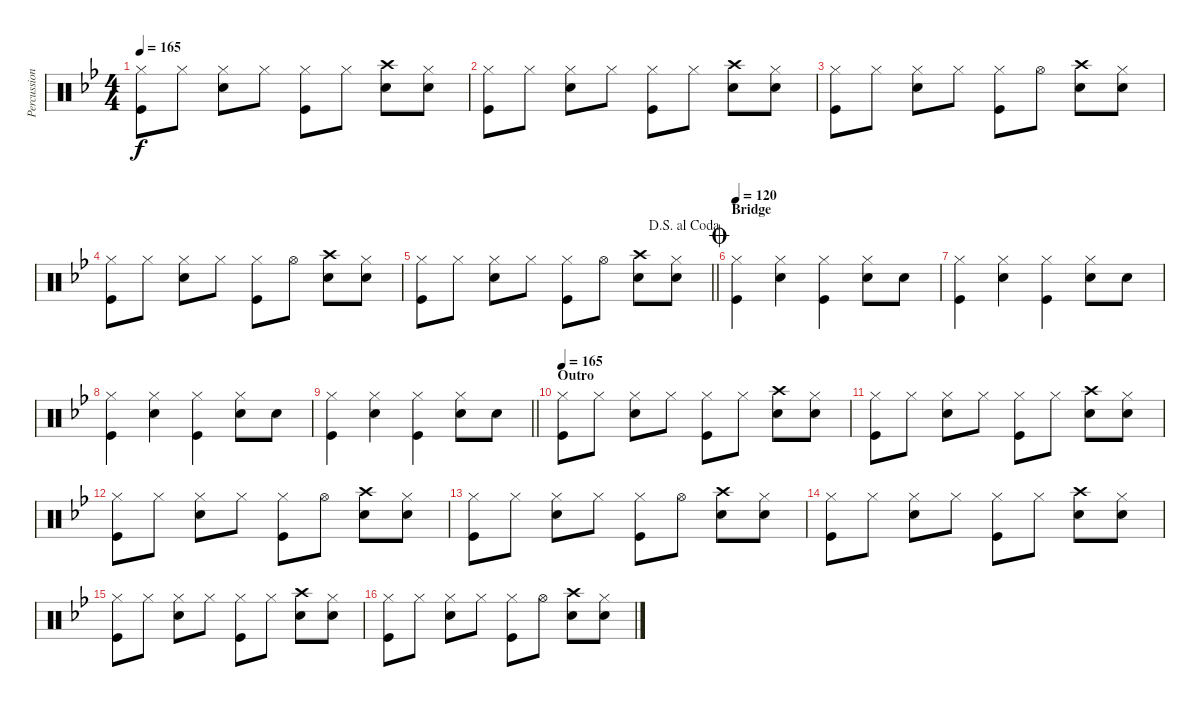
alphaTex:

\track ("Percussions" "Percussion") {instrument percussion}
\staff {score}
\articulation defaults
\ts (4 4)
\tempo 165
\clef neutral
\ks bb
("Hi-Hat (closed)" "Kick (hit)").8{dy f} "Hi-Hat (closed)".8 ("Hi-Hat (closed)" "Snare (hit) 2").8 "Hi-Hat (closed)".8 ("Hi-Hat (closed)" "Kick (hit)").8 "Hi-Hat (closed)".8 ("Crash high (hit)" "Snare (hit) 2").8 ("Hi-Hat (closed)" "Snare (hit) 2").8 |
("Hi-Hat (closed)" "Kick (hit)").8 "Hi-Hat (closed)".8 ("Hi-Hat (closed)" "Snare (hit) 2").8 "Hi-Hat (closed)".8 ("Hi-Hat (closed)" "Kick (hit)").8 "Hi-Hat (closed)".8 ("Crash high (hit)" "Snare (hit) 2").8 ("Hi-Hat (closed)" "Snare (hit) 2").8 |
("Hi-Hat (closed)" "Kick (hit)").8 "Hi-Hat (closed)".8 ("Hi-Hat (closed)" "Snare (hit) 2").8 "Hi-Hat (closed)".8 ("Hi-Hat (closed)" "Kick (hit)").8 "Hi-Hat (open)".8 ("Crash high (hit)" "Snare (hit) 2").8 ("Hi-Hat (closed)" "Snare (hit) 2").8 |
("Hi-Hat (closed)" "Kick (hit)").8 "Hi-Hat (closed)".8 ("Hi-Hat (closed)" "Snare (hit) 2").8 "Hi-Hat (closed)".8 ("Hi-Hat (closed)" "Kick (hit)").8 "Hi-Hat (open)".8 ("Crash high (hit)" "Snare (hit) 2").8 ("Hi-Hat (closed)" "Snare (hit) 2").8 |
\jump dalsegnoalcoda
\barLineRight lightlight
("Hi-Hat (closed)" "Kick (hit)").8 "Hi-Hat (closed)".8 ("Hi-Hat (closed)" "Snare (hit) 2").8 "Hi-Hat (closed)".8 ("Hi-Hat (closed)" "Kick (hit)").8 "Hi-Hat (open)".8 ("Crash high (hit)" "Snare (hit) 2").8 ("Hi-Hat (closed)" "Snare (hit) 2").8 |
\section ("" "Bridge")
\jump coda
\tempo 120
("Hi-Hat (closed)" "Kick (hit)").4 ("Hi-Hat (closed)" "Snare (hit) 2").4 ("Hi-Hat (closed)" "Kick (hit)").4 ("Hi-Hat (closed)" "Snare (hit) 2").8 "Snare (hit) 2".8 |
("Hi-Hat (closed)" "Kick (hit)").4 ("Hi-Hat (closed)" "Snare (hit) 2").4 ("Hi-Hat (closed)" "Kick (hit)").4 ("Hi-Hat (closed)" "Snare (hit) 2").8 "Snare (hit) 2".8 |
("Hi-Hat (closed)" "Kick (hit)").4 ("Hi-Hat (closed)" "Snare (hit) 2").4 ("Hi-Hat (closed)" "Kick (hit)").4 ("Hi-Hat (closed)" "Snare (hit) 2").8 "Snare (hit) 2".8 |
\barLineRight lightlight
("Hi-Hat (closed)" "Kick (hit)").4 ("Hi-Hat (closed)" "Snare (hit) 2").4 ("Hi-Hat (closed)" "Kick (hit)").4 ("Hi-Hat (closed)" "Snare (hit) 2").8 "Snare (hit) 2".8 |
\section ("" "Outro")
\tempo 165
("Hi-Hat (closed)" "Kick (hit)").8 "Hi-Hat (closed)".8 ("Hi-Hat (closed)" "Snare (hit) 2").8 "Hi-Hat (closed)".8 ("Hi-Hat (closed)" "Kick (hit)").8 "Hi-Hat (closed)".8 ("Crash high (hit)" "Snare (hit) 2").8 ("Hi-Hat (closed)" "Snare (hit) 2").8 |
("Hi-Hat (closed)" "Kick (hit)").8 "Hi-Hat (closed)".8 ("Hi-Hat (closed)" "Snare (hit) 2").8 "Hi-Hat (closed)".8 ("Hi-Hat (closed)" "Kick (hit)").8 "Hi-Hat (closed)".8 ("Crash high (hit)" "Snare (hit) 2").8 ("Hi-Hat (closed)" "Snare (hit) 2").8 |
("Hi-Hat (closed)" "Kick (hit)").8 "Hi-Hat (closed)".8 ("Hi-Hat (closed)" "Snare (hit) 2").8 "Hi-Hat (closed)".8 ("Hi-Hat (closed)" "Kick (hit)").8 "Hi-Hat (open)".8 ("Crash high (hit)" "Snare (hit) 2").8 ("Hi-Hat (closed)" "Snare (hit) 2").8 |
("Hi-Hat (closed)" "Kick (hit)").8 "Hi-Hat (closed)".8 ("Hi-Hat (closed)" "Snare (hit) 2").8 "Hi-Hat (closed)".8 ("Hi-Hat (closed)" "Kick (hit)").8 "Hi-Hat (open)".8 ("Crash high (hit)" "Snare (hit) 2").8 ("Hi-Hat (closed)" "Snare (hit) 2").8 |
("Hi-Hat (closed)" "Kick (hit)").8 "Hi-Hat (closed)".8 ("Hi-Hat (closed)" "Snare (hit) 2").8 "Hi-Hat (closed)".8 ("Hi-Hat (closed)" "Kick (hit)").8 "Hi-Hat (closed)".8 ("Crash high (hit)" "Snare (hit) 2").8 ("Hi-Hat (closed)" "Snare (hit) 2").8 |
("Hi-Hat (closed)" "Kick (hit)").8 "Hi-Hat (closed)".8 ("Hi-Hat (closed)" "Snare (hit) 2").8 "Hi-Hat (closed)".8 ("Hi-Hat (closed)" "Kick (hit)").8 "Hi-Hat (closed)".8 ("Crash high (hit)" "Snare (hit) 2").8 ("Hi-Hat (closed)" "Snare (hit) 2").8 |
("Hi-Hat (closed)" "Kick (hit)").8 "Hi-Hat (closed)".8 ("Hi-Hat (closed)" "Snare (hit) 2").8 "Hi-Hat (closed)".8 ("Hi-Hat (closed)" "Kick (hit)").8 "Hi-Hat (open)".8 ("Crash high (hit)" "Snare (hit) 2").8 ("Hi-Hat (closed)" "Snare (hit) 2").8
